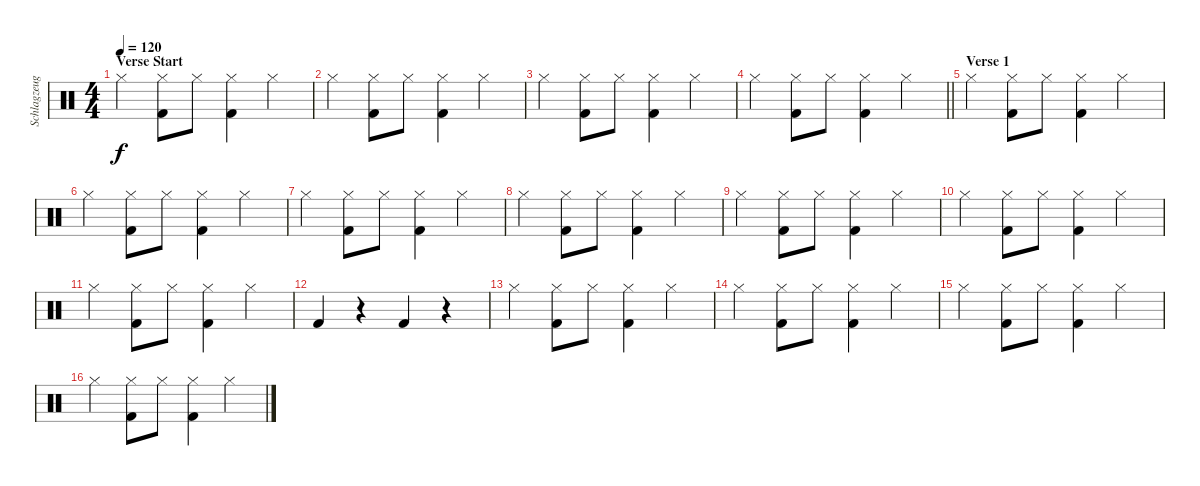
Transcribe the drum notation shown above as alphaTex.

\track ("Schlagzeug" "Schlagzeug") {instrument percussion}
\staff {score}
\articulation defaults
\ts (4 4)
\section ("" "Verse Start")
\tempo 120
\clef neutral
\ks c "Hi-Hat (closed)".4{dy f}
("Hi-Hat (closed)" "Kick (hit) 2").8 "Hi-Hat (closed)".8 ("Hi-Hat (closed)" "Kick (hit) 2").4 "Hi-Hat (closed)".4 |
"Hi-Hat (closed)".4 ("Hi-Hat (closed)" "Kick (hit) 2").8 "Hi-Hat (closed)".8 ("Hi-Hat (closed)" "Kick (hit) 2").4 "Hi-Hat (closed)".4 |
"Hi-Hat (closed)".4 ("Hi-Hat (closed)" "Kick (hit) 2").8 "Hi-Hat (closed)".8 ("Hi-Hat (closed)" "Kick (hit) 2").4 "Hi-Hat (closed)".4 |
\barLineRight lightlight "Hi-Hat (closed)".4
("Hi-Hat (closed)" "Kick (hit) 2").8 "Hi-Hat (closed)".8 ("Hi-Hat (closed)" "Kick (hit) 2").4 "Hi-Hat (closed)".4 |
\section ("" "Verse 1")
"Hi-Hat (closed)".4 ("Hi-Hat (closed)" "Kick (hit) 2").8 "Hi-Hat (closed)".8 ("Hi-Hat (closed)" "Kick (hit) 2").4 "Hi-Hat (closed)".4 |
"Hi-Hat (closed)".4 ("Hi-Hat (closed)" "Kick (hit) 2").8 "Hi-Hat (closed)".8 ("Hi-Hat (closed)" "Kick (hit) 2").4 "Hi-Hat (closed)".4 |
"Hi-Hat (closed)".4 ("Hi-Hat (closed)" "Kick (hit) 2").8 "Hi-Hat (closed)".8 ("Hi-Hat (closed)" "Kick (hit) 2").4 "Hi-Hat (closed)".4 |
"Hi-Hat (closed)".4 ("Hi-Hat (closed)" "Kick (hit) 2").8 "Hi-Hat (closed)".8 ("Hi-Hat (closed)" "Kick (hit) 2").4 "Hi-Hat (closed)".4 |
"Hi-Hat (closed)".4 ("Hi-Hat (closed)" "Kick (hit) 2").8 "Hi-Hat (closed)".8 ("Hi-Hat (closed)" "Kick (hit) 2").4 "Hi-Hat (closed)".4 |
"Hi-Hat (closed)".4 ("Hi-Hat (closed)" "Kick (hit) 2").8 "Hi-Hat (closed)".8 ("Hi-Hat (closed)" "Kick (hit) 2").4 "Hi-Hat (closed)".4 |
"Hi-Hat (closed)".4 ("Hi-Hat (closed)" "Kick (hit) 2").8 "Hi-Hat (closed)".8 ("Hi-Hat (closed)" "Kick (hit) 2").4 "Hi-Hat (closed)".4 |
"Kick (hit) 2".4 r.4 "Kick (hit) 2".4 r.4 |
"Hi-Hat (closed)".4 ("Hi-Hat (closed)" "Kick (hit) 2").8 "Hi-Hat (closed)".8 ("Hi-Hat (closed)" "Kick (hit) 2").4 "Hi-Hat (closed)".4 |
"Hi-Hat (closed)".4 ("Hi-Hat (closed)" "Kick (hit) 2").8 "Hi-Hat (closed)".8 ("Hi-Hat (closed)" "Kick (hit) 2").4 "Hi-Hat (closed)".4 |
"Hi-Hat (closed)".4 ("Hi-Hat (closed)" "Kick (hit) 2").8 "Hi-Hat (closed)".8 ("Hi-Hat (closed)" "Kick (hit) 2").4 "Hi-Hat (closed)".4 |
"Hi-Hat (closed)".4 ("Hi-Hat (closed)" "Kick (hit) 2").8 "Hi-Hat (closed)".8 ("Hi-Hat (closed)" "Kick (hit) 2").4 "Hi-Hat (closed)".4
